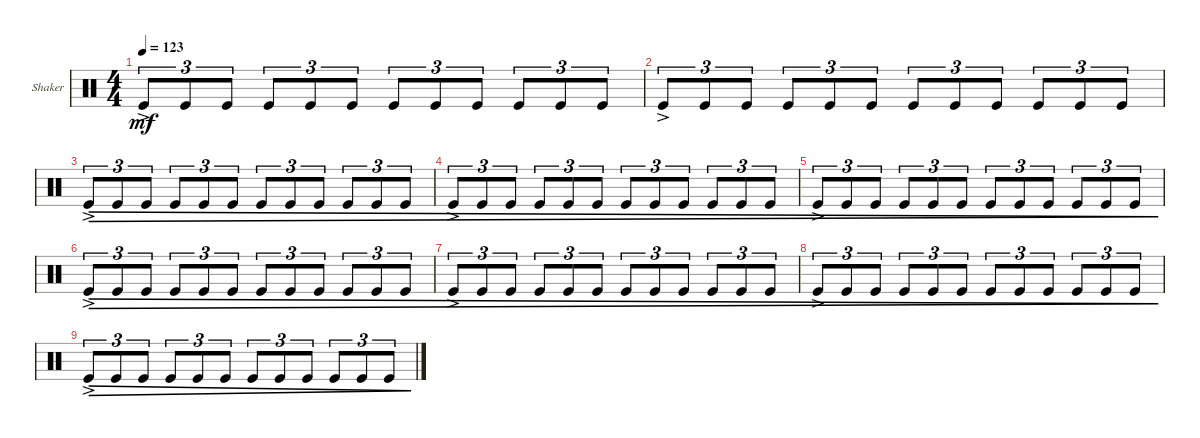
\defaultSystemsLayout 4
\bracketExtendMode groupsimilarinstruments
\firstSystemTrackNameOrientation horizontal
\otherSystemsTrackNameOrientation horizontal
\track ("Shaker" "Shaker") {multiBarRest instrument percussion}
\staff {score}
\articulation defaults
\ts (4 4)
\tempo 123
\clef neutral
\ks c "Kick (hit)"{ac}.8{tu (3 2) dy mf} "Kick (hit)".8{tu (3 2)} "Kick (hit)".8{tu (3 2)} "Kick (hit)".8{tu (3 2)} "Kick (hit)".8{tu (3 2)} "Kick (hit)".8{tu (3 2)} "Kick (hit)".8{tu (3 2)} "Kick (hit)".8{tu (3 2)} "Kick (hit)".8{tu (3 2)} "Kick (hit)".8{tu (3 2)} "Kick (hit)".8{tu (3 2)} "Kick (hit)".8{tu (3 2)}
|
"Kick (hit)"{ac}.8{tu (3 2)} "Kick (hit)".8{tu (3 2)} "Kick (hit)".8{tu (3 2)} "Kick (hit)".8{tu (3 2)} "Kick (hit)".8{tu (3 2)} "Kick (hit)".8{tu (3 2)} "Kick (hit)".8{tu (3 2)} "Kick (hit)".8{tu (3 2)} "Kick (hit)".8{tu (3 2)} "Kick (hit)".8{tu (3 2)} "Kick (hit)".8{tu (3 2)} "Kick (hit)".8{tu (3 2)} |
"Kick (hit)"{ac}.8{tu (3 2) dec} "Kick (hit)".8{tu (3 2) dec} "Kick (hit)".8{tu (3 2) dec} "Kick (hit)".8{tu (3 2) dec} "Kick (hit)".8{tu (3 2) dec} "Kick (hit)".8{tu (3 2) dec} "Kick (hit)".8{tu (3 2) dec} "Kick (hit)".8{tu (3 2) dec} "Kick (hit)".8{tu (3 2) dec} "Kick (hit)".8{tu (3 2) dec} "Kick (hit)".8{tu (3 2) dec} "Kick (hit)".8{tu (3 2) dec} |
"Kick (hit)"{ac}.8{tu (3 2) dec} "Kick (hit)".8{tu (3 2) dec} "Kick (hit)".8{tu (3 2) dec} "Kick (hit)".8{tu (3 2) dec} "Kick (hit)".8{tu (3 2) dec} "Kick (hit)".8{tu (3 2) dec} "Kick (hit)".8{tu (3 2) dec} "Kick (hit)".8{tu (3 2) dec} "Kick (hit)".8{tu (3 2) dec} "Kick (hit)".8{tu (3 2) dec} "Kick (hit)".8{tu (3 2) dec} "Kick (hit)".8{tu (3 2) dec} |
"Kick (hit)"{ac}.8{tu (3 2) dec} "Kick (hit)".8{tu (3 2) dec} "Kick (hit)".8{tu (3 2) dec} "Kick (hit)".8{tu (3 2) dec} "Kick (hit)".8{tu (3 2) dec} "Kick (hit)".8{tu (3 2) dec} "Kick (hit)".8{tu (3 2) dec} "Kick (hit)".8{tu (3 2) dec} "Kick (hit)".8{tu (3 2) dec} "Kick (hit)".8{tu (3 2) dec} "Kick (hit)".8{tu (3 2) dec} "Kick (hit)".8{tu (3 2) dec} |
"Kick (hit)"{ac}.8{tu (3 2) dec} "Kick (hit)".8{tu (3 2) dec} "Kick (hit)".8{tu (3 2) dec} "Kick (hit)".8{tu (3 2) dec} "Kick (hit)".8{tu (3 2) dec} "Kick (hit)".8{tu (3 2) dec} "Kick (hit)".8{tu (3 2) dec} "Kick (hit)".8{tu (3 2) dec} "Kick (hit)".8{tu (3 2) dec} "Kick (hit)".8{tu (3 2) dec} "Kick (hit)".8{tu (3 2) dec} "Kick (hit)".8{tu (3 2) dec} |
"Kick (hit)"{ac}.8{tu (3 2) dec} "Kick (hit)".8{tu (3 2) dec} "Kick (hit)".8{tu (3 2) dec} "Kick (hit)".8{tu (3 2) dec} "Kick (hit)".8{tu (3 2) dec} "Kick (hit)".8{tu (3 2) dec} "Kick (hit)".8{tu (3 2) dec} "Kick (hit)".8{tu (3 2) dec} "Kick (hit)".8{tu (3 2) dec} "Kick (hit)".8{tu (3 2) dec} "Kick (hit)".8{tu (3 2) dec} "Kick (hit)".8{tu (3 2) dec} |
"Kick (hit)"{ac}.8{tu (3 2) dec} "Kick (hit)".8{tu (3 2) dec} "Kick (hit)".8{tu (3 2) dec} "Kick (hit)".8{tu (3 2) dec} "Kick (hit)".8{tu (3 2) dec} "Kick (hit)".8{tu (3 2) dec} "Kick (hit)".8{tu (3 2) dec} "Kick (hit)".8{tu (3 2) dec} "Kick (hit)".8{tu (3 2) dec} "Kick (hit)".8{tu (3 2) dec} "Kick (hit)".8{tu (3 2) dec} "Kick (hit)".8{tu (3 2) dec} |
"Kick (hit)"{ac}.8{tu (3 2) dec} "Kick (hit)".8{tu (3 2) dec} "Kick (hit)".8{tu (3 2) dec} "Kick (hit)".8{tu (3 2) dec} "Kick (hit)".8{tu (3 2) dec} "Kick (hit)".8{tu (3 2) dec} "Kick (hit)".8{tu (3 2) dec} "Kick (hit)".8{tu (3 2) dec} "Kick (hit)".8{tu (3 2) dec} "Kick (hit)".8{tu (3 2) dec} "Kick (hit)".8{tu (3 2) dec} "Kick (hit)".8{tu (3 2) dec}
